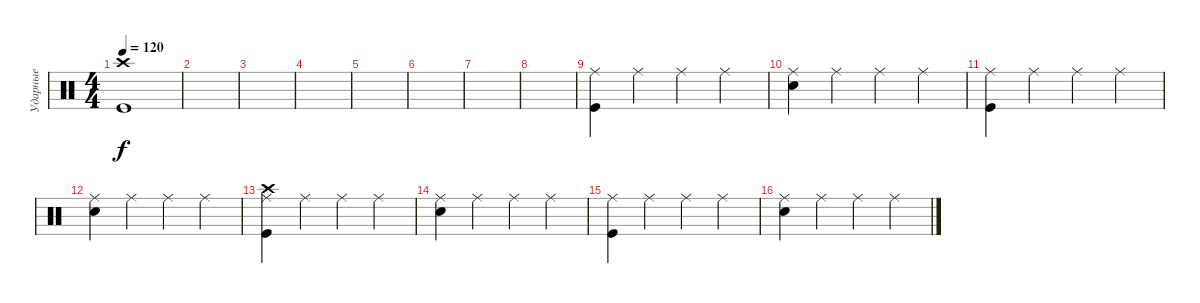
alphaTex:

\track ("Ударные" "Ударные") {instrument percussion}
\staff {score}
\articulation defaults
\ts (4 4)
\tempo 120
\clef neutral
\ks c
("Kick (hit)" "Crash high (hit)").1{dy f} |
|
|
|
|
|
|
|
("Kick (hit)" "Ride (middle)").4 "Ride (middle)".4 "Ride (middle)".4 "Ride (middle)".4 |
("Snare (hit) 2" "Ride (middle)").4 "Ride (middle)".4 "Ride (middle)".4 "Ride (middle)".4 |
("Kick (hit)" "Ride (middle)").4 "Ride (middle)".4 "Ride (middle)".4 "Ride (middle)".4 |
("Snare (hit) 2" "Ride (middle)").4 "Ride (middle)".4 "Ride (middle)".4 "Ride (middle)".4 |
("Kick (hit)" "Ride (middle)" "Crash high (hit)").4 "Ride (middle)".4 "Ride (middle)".4 "Ride (middle)".4 |
("Snare (hit) 2" "Ride (middle)").4 "Ride (middle)".4 "Ride (middle)".4 "Ride (middle)".4 |
("Kick (hit)" "Ride (middle)").4 "Ride (middle)".4 "Ride (middle)".4 "Ride (middle)".4 |
("Snare (hit) 2" "Ride (middle)").4 "Ride (middle)".4 "Ride (middle)".4 "Ride (middle)".4
